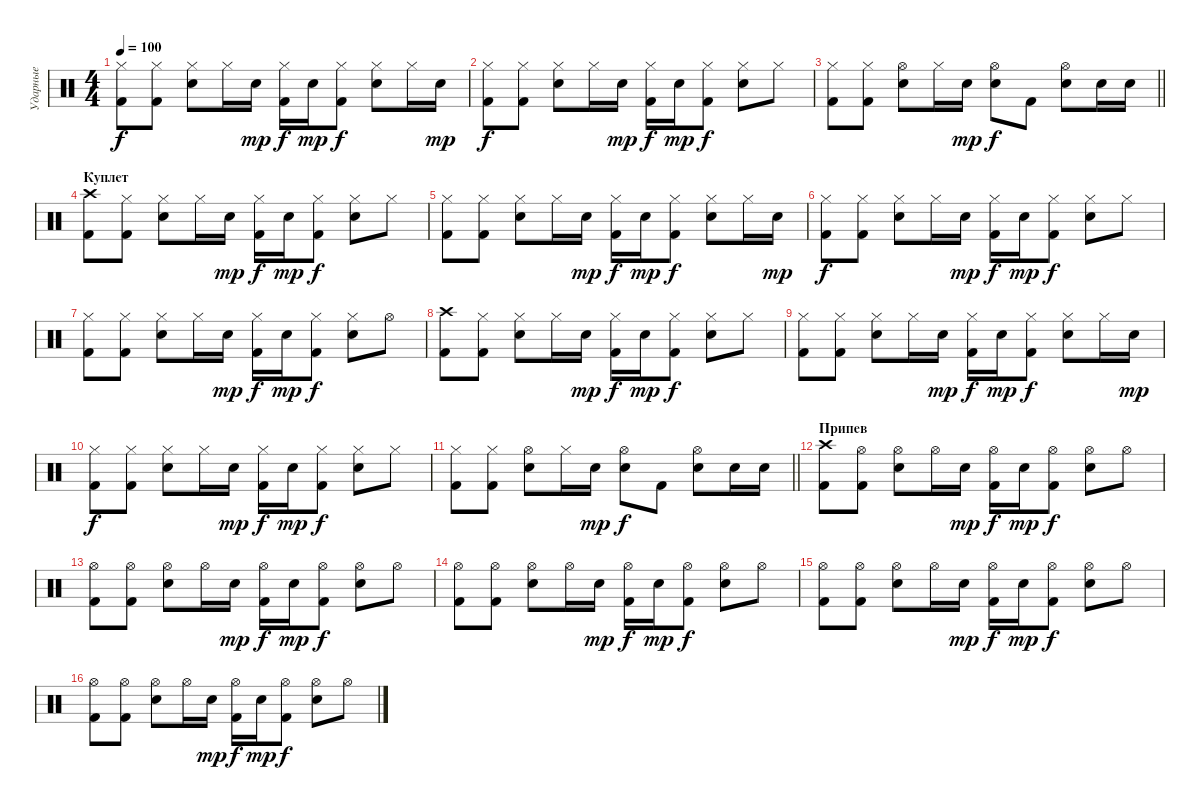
\track ("Ударные" "Ударные") {instrument percussion}
\staff {score}
\articulation defaults
\ts (4 4)
\tempo 100
\clef neutral
\ks c
("Hi-Hat (closed)" "Kick (hit) 2").8{dy f} ("Hi-Hat (closed)" "Kick (hit) 2").8 ("Hi-Hat (closed)" "Electric Snare (hit)").8 "Hi-Hat (closed)".16 "Electric Snare (hit)".16{dy mp} ("Hi-Hat (closed)" "Kick (hit) 2").16{dy f} "Electric Snare (hit)".16{dy mp} ("Hi-Hat (closed)" "Kick (hit) 2").8{dy f} ("Hi-Hat (closed)" "Electric Snare (hit)").8 "Hi-Hat (closed)".16 "Electric Snare (hit)".16{dy mp} |
("Hi-Hat (closed)" "Kick (hit) 2").8{dy f} ("Hi-Hat (closed)" "Kick (hit) 2").8 ("Hi-Hat (closed)" "Electric Snare (hit)").8 "Hi-Hat (closed)".16 "Electric Snare (hit)".16{dy mp} ("Hi-Hat (closed)" "Kick (hit) 2").16{dy f} "Electric Snare (hit)".16{dy mp} ("Hi-Hat (closed)" "Kick (hit) 2").8{dy f} ("Hi-Hat (closed)" "Electric Snare (hit)").8 "Hi-Hat (closed)".8 |
\barLineRight lightlight
("Hi-Hat (closed)" "Kick (hit) 2").8 ("Hi-Hat (closed)" "Kick (hit) 2").8 ("Hi-Hat (open)" "Electric Snare (hit)").8 "Hi-Hat (closed)".16 "Electric Snare (hit)".16{dy mp} ("Hi-Hat (open)" "Electric Snare (hit)").8{dy f} "Kick (hit) 2".8 ("Hi-Hat (open)" "Electric Snare (hit)").8 "Electric Snare (hit)".16 "Electric Snare (hit)".16 |
\section ("" "Куплет")
("Crash high (hit)" "Kick (hit) 2").8 ("Hi-Hat (closed)" "Kick (hit) 2").8 ("Hi-Hat (closed)" "Electric Snare (hit)").8 "Hi-Hat (closed)".16 "Electric Snare (hit)".16{dy mp} ("Hi-Hat (closed)" "Kick (hit) 2").16{dy f} "Electric Snare (hit)".16{dy mp} ("Hi-Hat (closed)" "Kick (hit) 2").8{dy f} ("Hi-Hat (closed)" "Electric Snare (hit)").8 "Hi-Hat (closed)".8 |
("Hi-Hat (closed)" "Kick (hit) 2").8 ("Hi-Hat (closed)" "Kick (hit) 2").8 ("Hi-Hat (closed)" "Electric Snare (hit)").8 "Hi-Hat (closed)".16 "Electric Snare (hit)".16{dy mp} ("Hi-Hat (closed)" "Kick (hit) 2").16{dy f} "Electric Snare (hit)".16{dy mp} ("Hi-Hat (closed)" "Kick (hit) 2").8{dy f} ("Hi-Hat (closed)" "Electric Snare (hit)").8 "Hi-Hat (closed)".16 "Electric Snare (hit)".16{dy mp} |
("Hi-Hat (closed)" "Kick (hit) 2").8{dy f} ("Hi-Hat (closed)" "Kick (hit) 2").8 ("Hi-Hat (closed)" "Electric Snare (hit)").8 "Hi-Hat (closed)".16 "Electric Snare (hit)".16{dy mp} ("Hi-Hat (closed)" "Kick (hit) 2").16{dy f} "Electric Snare (hit)".16{dy mp} ("Hi-Hat (closed)" "Kick (hit) 2").8{dy f} ("Hi-Hat (closed)" "Electric Snare (hit)").8 "Hi-Hat (closed)".8 |
("Hi-Hat (closed)" "Kick (hit) 2").8 ("Hi-Hat (closed)" "Kick (hit) 2").8 ("Hi-Hat (closed)" "Electric Snare (hit)").8 "Hi-Hat (closed)".16 "Electric Snare (hit)".16{dy mp} ("Hi-Hat (closed)" "Kick (hit) 2").16{dy f} "Electric Snare (hit)".16{dy mp} ("Hi-Hat (closed)" "Kick (hit) 2").8{dy f} ("Hi-Hat (closed)" "Electric Snare (hit)").8 "Hi-Hat (open)".8 |
("Crash high (hit)" "Kick (hit) 2").8 ("Hi-Hat (closed)" "Kick (hit) 2").8 ("Hi-Hat (closed)" "Electric Snare (hit)").8 "Hi-Hat (closed)".16 "Electric Snare (hit)".16{dy mp} ("Hi-Hat (closed)" "Kick (hit) 2").16{dy f} "Electric Snare (hit)".16{dy mp} ("Hi-Hat (closed)" "Kick (hit) 2").8{dy f} ("Hi-Hat (closed)" "Electric Snare (hit)").8 "Hi-Hat (closed)".8 |
("Hi-Hat (closed)" "Kick (hit) 2").8 ("Hi-Hat (closed)" "Kick (hit) 2").8 ("Hi-Hat (closed)" "Electric Snare (hit)").8 "Hi-Hat (closed)".16 "Electric Snare (hit)".16{dy mp} ("Hi-Hat (closed)" "Kick (hit) 2").16{dy f} "Electric Snare (hit)".16{dy mp} ("Hi-Hat (closed)" "Kick (hit) 2").8{dy f} ("Hi-Hat (closed)" "Electric Snare (hit)").8 "Hi-Hat (closed)".16 "Electric Snare (hit)".16{dy mp} |
("Hi-Hat (closed)" "Kick (hit) 2").8{dy f} ("Hi-Hat (closed)" "Kick (hit) 2").8 ("Hi-Hat (closed)" "Electric Snare (hit)").8 "Hi-Hat (closed)".16 "Electric Snare (hit)".16{dy mp} ("Hi-Hat (closed)" "Kick (hit) 2").16{dy f} "Electric Snare (hit)".16{dy mp} ("Hi-Hat (closed)" "Kick (hit) 2").8{dy f} ("Hi-Hat (closed)" "Electric Snare (hit)").8 "Hi-Hat (closed)".8 |
\barLineRight lightlight
("Hi-Hat (closed)" "Kick (hit) 2").8 ("Hi-Hat (closed)" "Kick (hit) 2").8 ("Hi-Hat (open)" "Electric Snare (hit)").8 "Hi-Hat (closed)".16 "Electric Snare (hit)".16{dy mp} ("Hi-Hat (open)" "Electric Snare (hit)").8{dy f} "Kick (hit) 2".8 ("Hi-Hat (open)" "Electric Snare (hit)").8 "Electric Snare (hit)".16 "Electric Snare (hit)".16 |
\section ("" "Припев")
("Crash high (hit)" "Kick (hit) 2").8 ("Hi-Hat (open)" "Kick (hit) 2").8 ("Hi-Hat (open)" "Electric Snare (hit)").8 "Hi-Hat (open)".16 "Electric Snare (hit)".16{dy mp} ("Hi-Hat (open)" "Kick (hit) 2").16{dy f} "Electric Snare (hit)".16{dy mp} ("Hi-Hat (open)" "Kick (hit) 2").8{dy f} ("Hi-Hat (open)" "Electric Snare (hit)").8 "Hi-Hat (open)".8 |
("Hi-Hat (open)" "Kick (hit) 2").8 ("Hi-Hat (open)" "Kick (hit) 2").8 ("Hi-Hat (open)" "Electric Snare (hit)").8 "Hi-Hat (open)".16 "Electric Snare (hit)".16{dy mp} ("Hi-Hat (open)" "Kick (hit) 2").16{dy f} "Electric Snare (hit)".16{dy mp} ("Hi-Hat (open)" "Kick (hit) 2").8{dy f} ("Hi-Hat (open)" "Electric Snare (hit)").8 "Hi-Hat (open)".8 |
("Hi-Hat (open)" "Kick (hit) 2").8 ("Hi-Hat (open)" "Kick (hit) 2").8 ("Hi-Hat (open)" "Electric Snare (hit)").8 "Hi-Hat (open)".16 "Electric Snare (hit)".16{dy mp} ("Hi-Hat (open)" "Kick (hit) 2").16{dy f} "Electric Snare (hit)".16{dy mp} ("Hi-Hat (open)" "Kick (hit) 2").8{dy f} ("Hi-Hat (open)" "Electric Snare (hit)").8 "Hi-Hat (open)".8 |
("Hi-Hat (open)" "Kick (hit) 2").8 ("Hi-Hat (open)" "Kick (hit) 2").8 ("Hi-Hat (open)" "Electric Snare (hit)").8 "Hi-Hat (open)".16 "Electric Snare (hit)".16{dy mp} ("Hi-Hat (open)" "Kick (hit) 2").16{dy f} "Electric Snare (hit)".16{dy mp} ("Hi-Hat (open)" "Kick (hit) 2").8{dy f} ("Hi-Hat (open)" "Electric Snare (hit)").8 "Hi-Hat (open)".8 |
("Hi-Hat (open)" "Kick (hit) 2").8 ("Hi-Hat (open)" "Kick (hit) 2").8 ("Hi-Hat (open)" "Electric Snare (hit)").8 "Hi-Hat (open)".16 "Electric Snare (hit)".16{dy mp} ("Hi-Hat (open)" "Kick (hit) 2").16{dy f} "Electric Snare (hit)".16{dy mp} ("Hi-Hat (open)" "Kick (hit) 2").8{dy f} ("Hi-Hat (open)" "Electric Snare (hit)").8 "Hi-Hat (open)".8
